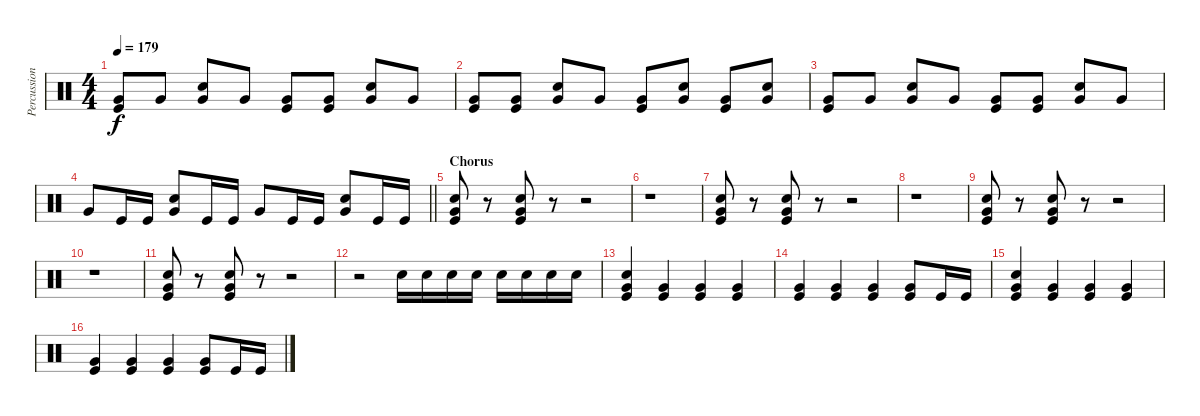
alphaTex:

\track ("Percussion" "Percussion") {instrument percussion}
\staff {score}
\articulation defaults
\ts (4 4)
\tempo 179
\clef neutral
\ks c
("Kick (hit)" "Very Low Tom (hit)").8{dy f} "Very Low Tom (hit)".8 ("Snare (hit) 2" "Very Low Tom (hit)").8 "Very Low Tom (hit)".8 ("Kick (hit)" "Very Low Tom (hit)").8 ("Kick (hit)" "Very Low Tom (hit)").8 ("Snare (hit) 2" "Very Low Tom (hit)").8 "Very Low Tom (hit)".8 |
("Kick (hit)" "Very Low Tom (hit)").8 ("Kick (hit)" "Very Low Tom (hit)").8 ("Snare (hit) 2" "Very Low Tom (hit)").8 "Very Low Tom (hit)".8 ("Kick (hit)" "Very Low Tom (hit)").8 ("Snare (hit) 2" "Very Low Tom (hit)").8 ("Kick (hit)" "Very Low Tom (hit)").8 ("Snare (hit) 2" "Very Low Tom (hit)").8 |
("Kick (hit)" "Very Low Tom (hit)").8 "Very Low Tom (hit)".8 ("Snare (hit) 2" "Very Low Tom (hit)").8 "Very Low Tom (hit)".8 ("Kick (hit)" "Very Low Tom (hit)").8 ("Kick (hit)" "Very Low Tom (hit)").8 ("Snare (hit) 2" "Very Low Tom (hit)").8 "Very Low Tom (hit)".8 |
\barLineRight lightlight "Very Low Tom (hit)".8 "Kick (hit)".16 "Kick (hit)".16
("Snare (hit) 2" "Very Low Tom (hit)").8 "Kick (hit)".16 "Kick (hit)".16 "Very Low Tom (hit)".8 "Kick (hit)".16 "Kick (hit)".16 ("Snare (hit) 2" "Very Low Tom (hit)").8 "Kick (hit)".16 "Kick (hit)".16 |
\section ("" "Chorus")
("Kick (hit)" "Snare (hit) 2" "Very Low Tom (hit)").8 r.8 ("Kick (hit)" "Snare (hit) 2" "Very Low Tom (hit)").8 r.8 r.2 |
r.1 |
("Kick (hit)" "Snare (hit) 2" "Very Low Tom (hit)").8 r.8 ("Kick (hit)" "Snare (hit) 2" "Very Low Tom (hit)").8 r.8 r.2 |
r.1 |
("Kick (hit)" "Snare (hit) 2" "Very Low Tom (hit)").8 r.8 ("Kick (hit)" "Snare (hit) 2" "Very Low Tom (hit)").8 r.8 r.2 |
r.1 |
("Kick (hit)" "Snare (hit) 2" "Very Low Tom (hit)").8 r.8 ("Kick (hit)" "Snare (hit) 2" "Very Low Tom (hit)").8 r.8 r.2 |
r.2{volume 0} "Snare (hit) 2".16{volume 12} "Snare (hit) 2".16 "Snare (hit) 2".16 "Snare (hit) 2".16 "Snare (hit) 2".16 "Snare (hit) 2".16 "Snare (hit) 2".16 "Snare (hit) 2".16 |
("Kick (hit)" "Snare (hit) 2" "Very Low Tom (hit)").4 ("Kick (hit)" "Very Low Tom (hit)").4 ("Kick (hit)" "Very Low Tom (hit)").4 ("Kick (hit)" "Very Low Tom (hit)").4 |
("Kick (hit)" "Very Low Tom (hit)").4 ("Kick (hit)" "Very Low Tom (hit)").4 ("Kick (hit)" "Very Low Tom (hit)").4 ("Kick (hit)" "Very Low Tom (hit)").8 "Kick (hit)".16 "Kick (hit)".16 |
("Kick (hit)" "Snare (hit) 2" "Very Low Tom (hit)").4 ("Kick (hit)" "Very Low Tom (hit)").4 ("Kick (hit)" "Very Low Tom (hit)").4 ("Kick (hit)" "Very Low Tom (hit)").4 |
("Kick (hit)" "Very Low Tom (hit)").4 ("Kick (hit)" "Very Low Tom (hit)").4 ("Kick (hit)" "Very Low Tom (hit)").4 ("Kick (hit)" "Very Low Tom (hit)").8 "Kick (hit)".16 "Kick (hit)".16
